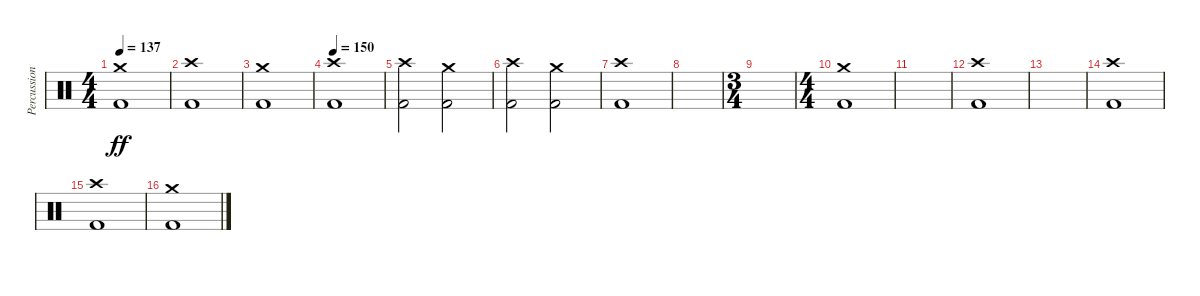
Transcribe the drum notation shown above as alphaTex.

\track ("Percussion" "Percussion") {instrument percussion}
\staff {score}
\articulation defaults
\ts (4 4)
\tempo 137
\clef neutral
\ks c
("Crash medium (hit)" "Kick (hit) 2").1{dy ff} |
("Crash high (hit)" "Kick (hit) 2").1 |
("Crash medium (hit)" "Kick (hit) 2").1 |
\tempo 150
("Crash high (hit)" "Kick (hit) 2").1 |
("Crash high (hit)" "Kick (hit) 2").2 ("Crash medium (hit)" "Kick (hit) 2").2 |
("Crash high (hit)" "Kick (hit) 2").2 ("Crash medium (hit)" "Kick (hit) 2").2 |
("Crash high (hit)" "Kick (hit) 2").1 |
|
\ts (3 4)
|
\ts (4 4)
("Crash medium (hit)" "Kick (hit) 2").1 |
|
("Crash high (hit)" "Kick (hit) 2").1 |
|
("Crash high (hit)" "Kick (hit) 2").1 |
("Crash high (hit)" "Kick (hit) 2").1 |
("Crash medium (hit)" "Kick (hit) 2").1
